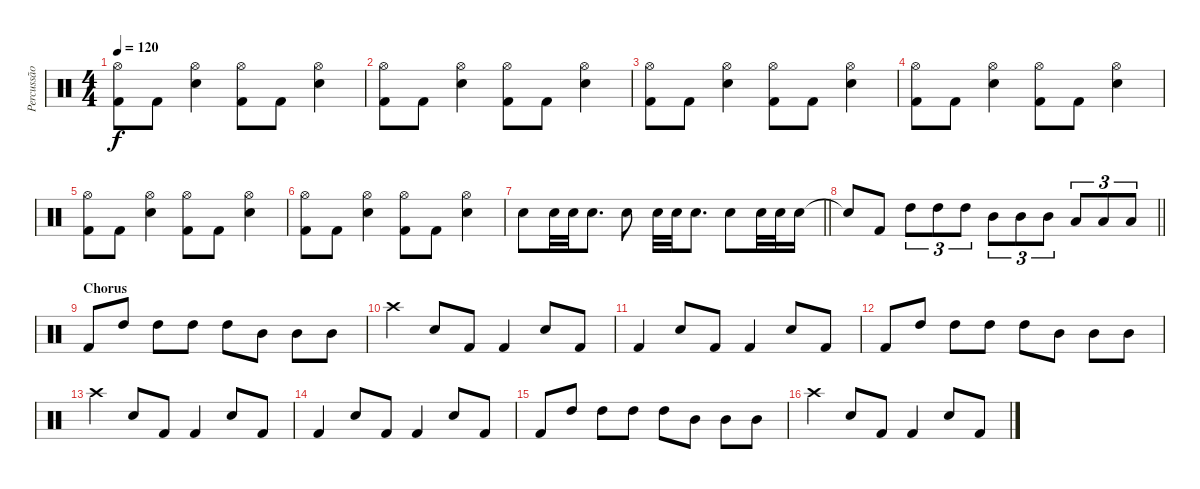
\track ("Percussão" "Percussão") {instrument percussion}
\staff {score}
\articulation defaults
\ts (4 4)
\tempo 120
\clef neutral
\ks c
("Hi-Hat (open)" "Kick (hit) 2").8{dy f} "Kick (hit) 2".8 ("Hi-Hat (open)" "Snare (hit) 2").4 ("Hi-Hat (open)" "Kick (hit) 2").8 "Kick (hit) 2".8 ("Hi-Hat (open)" "Snare (hit) 2").4 |
("Hi-Hat (open)" "Kick (hit) 2").8 "Kick (hit) 2".8 ("Hi-Hat (open)" "Snare (hit) 2").4 ("Hi-Hat (open)" "Kick (hit) 2").8 "Kick (hit) 2".8 ("Hi-Hat (open)" "Snare (hit) 2").4 |
("Hi-Hat (open)" "Kick (hit) 2").8 "Kick (hit) 2".8 ("Hi-Hat (open)" "Snare (hit) 2").4 ("Hi-Hat (open)" "Kick (hit) 2").8 "Kick (hit) 2".8 ("Hi-Hat (open)" "Snare (hit) 2").4 |
("Hi-Hat (open)" "Kick (hit) 2").8 "Kick (hit) 2".8 ("Hi-Hat (open)" "Snare (hit) 2").4 ("Hi-Hat (open)" "Kick (hit) 2").8 "Kick (hit) 2".8 ("Hi-Hat (open)" "Snare (hit) 2").4 |
("Hi-Hat (open)" "Kick (hit) 2").8 "Kick (hit) 2".8 ("Hi-Hat (open)" "Snare (hit) 2").4 ("Hi-Hat (open)" "Kick (hit) 2").8 "Kick (hit) 2".8 ("Hi-Hat (open)" "Snare (hit) 2").4 |
("Hi-Hat (open)" "Kick (hit) 2").8 "Kick (hit) 2".8 ("Hi-Hat (open)" "Snare (hit) 2").4 ("Hi-Hat (open)" "Kick (hit) 2").8 "Kick (hit) 2".8 ("Hi-Hat (open)" "Snare (hit) 2").4 |
\barLineRight lightlight "Snare (hit) 2".8 "Snare (hit) 2".32 "Snare (hit) 2".32 "Snare (hit) 2".8{d} "Snare (hit) 2".8 "Snare (hit) 2".32 "Snare (hit) 2".32 "Snare (hit) 2".8{d} "Snare (hit) 2".8 "Snare (hit) 2".32 "Snare (hit) 2".32 "Snare (hit) 2".16
|
\barLineRight lightlight "Snare (hit) 2"{t}.8 "Kick (hit) 2".8 "High Tom (hit)".8{tu (3 2)} "High Tom (hit)".8{tu (3 2)} "High Tom (hit)".8{tu (3 2)} "Mid Tom (hit)".8{tu (3 2)} "Mid Tom (hit)".8{tu (3 2)} "Mid Tom (hit)".8{tu (3 2)} "Low Tom (hit)".8{tu (3 2)} "Low Tom (hit)".8{tu (3 2)} "Low Tom (hit)".8{tu (3 2)}
|
\section ("" "Chorus")
"Kick (hit) 2".8 "High Tom (hit)".8 "High Tom (hit)".8 "High Tom (hit)".8 "High Tom (hit)".8 "Mid Tom (hit)".8 "Mid Tom (hit)".8 "Mid Tom (hit)".8 |
"Crash high (hit)".4 "Snare (hit) 2".8 "Kick (hit) 2".8 "Kick (hit) 2".4 "Snare (hit) 2".8 "Kick (hit) 2".8 |
"Kick (hit) 2".4 "Snare (hit) 2".8 "Kick (hit) 2".8 "Kick (hit) 2".4 "Snare (hit) 2".8 "Kick (hit) 2".8 |
"Kick (hit) 2".8 "High Tom (hit)".8 "High Tom (hit)".8 "High Tom (hit)".8 "High Tom (hit)".8 "Mid Tom (hit)".8 "Mid Tom (hit)".8 "Mid Tom (hit)".8 |
"Crash high (hit)".4 "Snare (hit) 2".8 "Kick (hit) 2".8 "Kick (hit) 2".4 "Snare (hit) 2".8 "Kick (hit) 2".8 |
"Kick (hit) 2".4 "Snare (hit) 2".8 "Kick (hit) 2".8 "Kick (hit) 2".4 "Snare (hit) 2".8 "Kick (hit) 2".8 |
"Kick (hit) 2".8 "High Tom (hit)".8 "High Tom (hit)".8 "High Tom (hit)".8 "High Tom (hit)".8 "Mid Tom (hit)".8 "Mid Tom (hit)".8 "Mid Tom (hit)".8 |
"Crash high (hit)".4 "Snare (hit) 2".8 "Kick (hit) 2".8 "Kick (hit) 2".4 "Snare (hit) 2".8 "Kick (hit) 2".8
